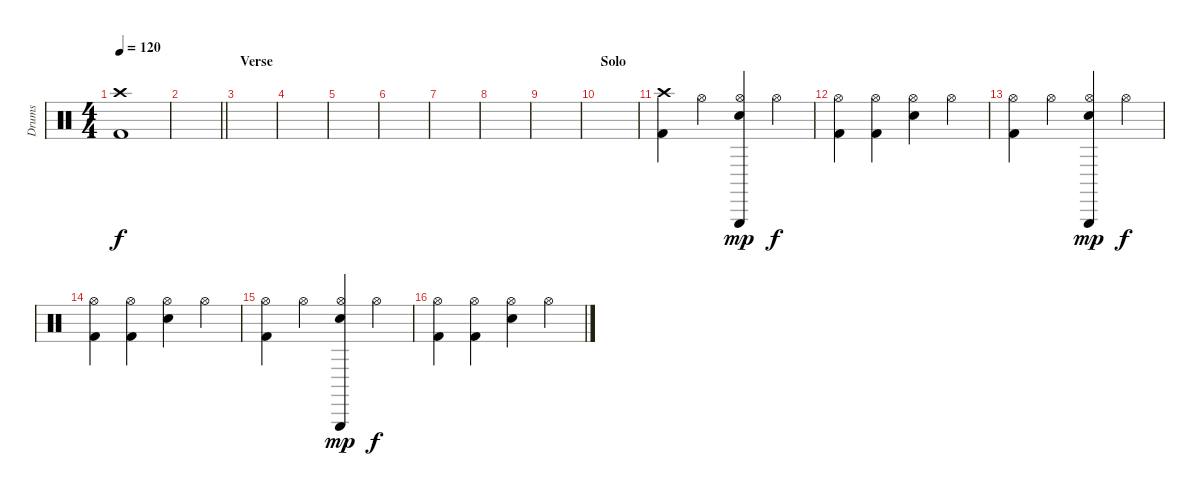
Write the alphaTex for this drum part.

\track ("Drums" "Drums") {instrument percussion}
\staff {score}
\articulation defaults
\ts (4 4)
\tempo 120
\clef neutral
\ks c
("Crash high (hit)" "Kick (hit) 2").1{dy f} |
\barLineRight lightlight
|
\section ("" "Verse")
|
|
|
|
|
|
|
\section ("" "Solo")
|
("Crash high (hit)" "Kick (hit) 2").4 "Hi-Hat (open)".4 ("Hi-Hat (open)" "Snare (hit) 2" "Triangle (hit)").4{dy mp} "Hi-Hat (open)".4{dy f} |
("Hi-Hat (open)" "Kick (hit) 2").4 ("Hi-Hat (open)" "Kick (hit) 2").4 ("Hi-Hat (open)" "Snare (hit) 2").4 "Hi-Hat (open)".4 |
("Hi-Hat (open)" "Kick (hit) 2").4 "Hi-Hat (open)".4 ("Hi-Hat (open)" "Snare (hit) 2" "Triangle (hit)").4{dy mp} "Hi-Hat (open)".4{dy f} |
("Hi-Hat (open)" "Kick (hit) 2").4 ("Hi-Hat (open)" "Kick (hit) 2").4 ("Hi-Hat (open)" "Snare (hit) 2").4 "Hi-Hat (open)".4 |
("Hi-Hat (open)" "Kick (hit) 2").4 "Hi-Hat (open)".4 ("Hi-Hat (open)" "Snare (hit) 2" "Triangle (hit)").4{dy mp} "Hi-Hat (open)".4{dy f} |
("Hi-Hat (open)" "Kick (hit) 2").4 ("Hi-Hat (open)" "Kick (hit) 2").4 ("Hi-Hat (open)" "Snare (hit) 2").4 "Hi-Hat (open)".4
